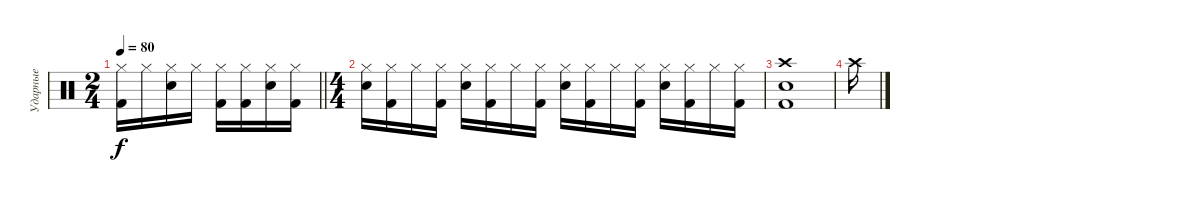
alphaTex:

\track ("Ударные" "Ударные") {instrument percussion}
\staff {score}
\articulation defaults
\ts (2 4)
\tempo 80
\clef neutral
\barLineRight lightlight
\ks c
("Hi-Hat (closed)" "Kick (hit) 2").16{dy f} "Hi-Hat (closed)".16 ("Hi-Hat (closed)" "Electric Snare (hit)").16 "Hi-Hat (closed)".16 ("Hi-Hat (closed)" "Kick (hit) 2").16 ("Hi-Hat (closed)" "Kick (hit) 2").16 ("Hi-Hat (closed)" "Electric Snare (hit)").16 ("Hi-Hat (closed)" "Kick (hit) 2").16 |
\ts (4 4)
("Snare (hit) 2" "Hi-Hat (closed)").16 ("Hi-Hat (closed)" "Kick (hit) 2").16 "Hi-Hat (closed)".16 ("Hi-Hat (closed)" "Kick (hit) 2").16 ("Snare (hit) 2" "Hi-Hat (closed)").16 ("Hi-Hat (closed)" "Kick (hit) 2").16 "Hi-Hat (closed)".16 ("Hi-Hat (closed)" "Kick (hit) 2").16 ("Snare (hit) 2" "Hi-Hat (closed)").16 ("Hi-Hat (closed)" "Kick (hit) 2").16 "Hi-Hat (closed)".16 ("Hi-Hat (closed)" "Kick (hit) 2").16 ("Snare (hit) 2" "Hi-Hat (closed)").16 ("Hi-Hat (closed)" "Kick (hit) 2").16 "Hi-Hat (closed)".16 ("Hi-Hat (closed)" "Kick (hit) 2").16 |
("Crash high (hit)" "Snare (hit) 2" "Kick (hit) 2").1 |
"Crash high (hit)".16
